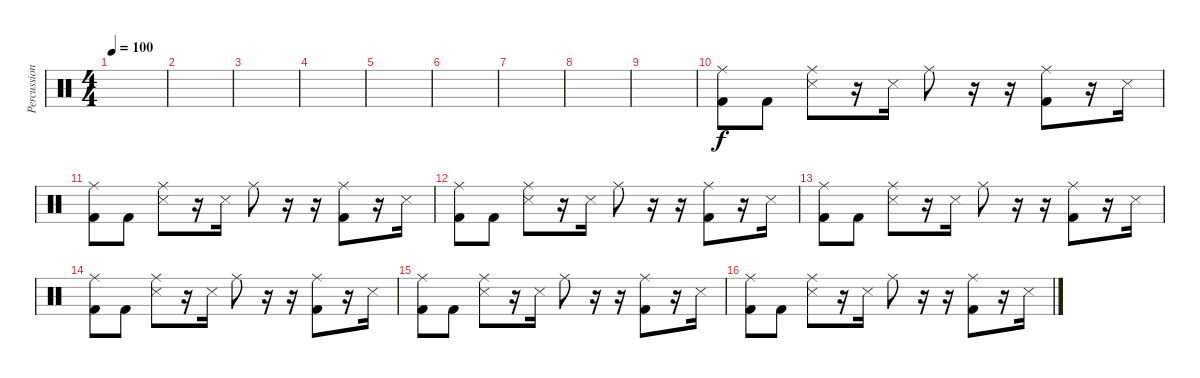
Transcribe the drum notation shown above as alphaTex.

\track ("Percussion" "Percussion") {instrument percussion}
\staff {score}
\articulation defaults
\ts (4 4)
\tempo 100
\clef neutral
\ks c
|
|
|
|
|
|
|
|
|
("Ride (middle)" "Kick (hit) 2").8 "Kick (hit) 2".8 ("Ride (middle)" "Snare (side stick) 3").8 r.16 "Snare (side stick) 3".16 "Ride (middle)".8 r.16 r.16 ("Ride (middle)" "Kick (hit) 2").8 r.16 "Snare (side stick) 3".16 |
("Ride (middle)" "Kick (hit) 2").8 "Kick (hit) 2".8 ("Ride (middle)" "Snare (side stick) 3").8 r.16 "Snare (side stick) 3".16 "Ride (middle)".8 r.16 r.16 ("Ride (middle)" "Kick (hit) 2").8 r.16 "Snare (side stick) 3".16 |
("Ride (middle)" "Kick (hit) 2").8 "Kick (hit) 2".8 ("Ride (middle)" "Snare (side stick) 3").8 r.16 "Snare (side stick) 3".16 "Ride (middle)".8 r.16 r.16 ("Ride (middle)" "Kick (hit) 2").8 r.16 "Snare (side stick) 3".16 |
("Ride (middle)" "Kick (hit) 2").8 "Kick (hit) 2".8 ("Ride (middle)" "Snare (side stick) 3").8 r.16 "Snare (side stick) 3".16 "Ride (middle)".8 r.16 r.16 ("Ride (middle)" "Kick (hit) 2").8 r.16 "Snare (side stick) 3".16 |
("Ride (middle)" "Kick (hit) 2").8 "Kick (hit) 2".8 ("Ride (middle)" "Snare (side stick) 3").8 r.16 "Snare (side stick) 3".16 "Ride (middle)".8 r.16 r.16 ("Ride (middle)" "Kick (hit) 2").8 r.16 "Snare (side stick) 3".16 |
("Ride (middle)" "Kick (hit) 2").8 "Kick (hit) 2".8 ("Ride (middle)" "Snare (side stick) 3").8 r.16 "Snare (side stick) 3".16 "Ride (middle)".8 r.16 r.16 ("Ride (middle)" "Kick (hit) 2").8 r.16 "Snare (side stick) 3".16 |
("Ride (middle)" "Kick (hit) 2").8 "Kick (hit) 2".8 ("Ride (middle)" "Snare (side stick) 3").8 r.16 "Snare (side stick) 3".16 "Ride (middle)".8 r.16 r.16 ("Ride (middle)" "Kick (hit) 2").8 r.16 "Snare (side stick) 3".16
